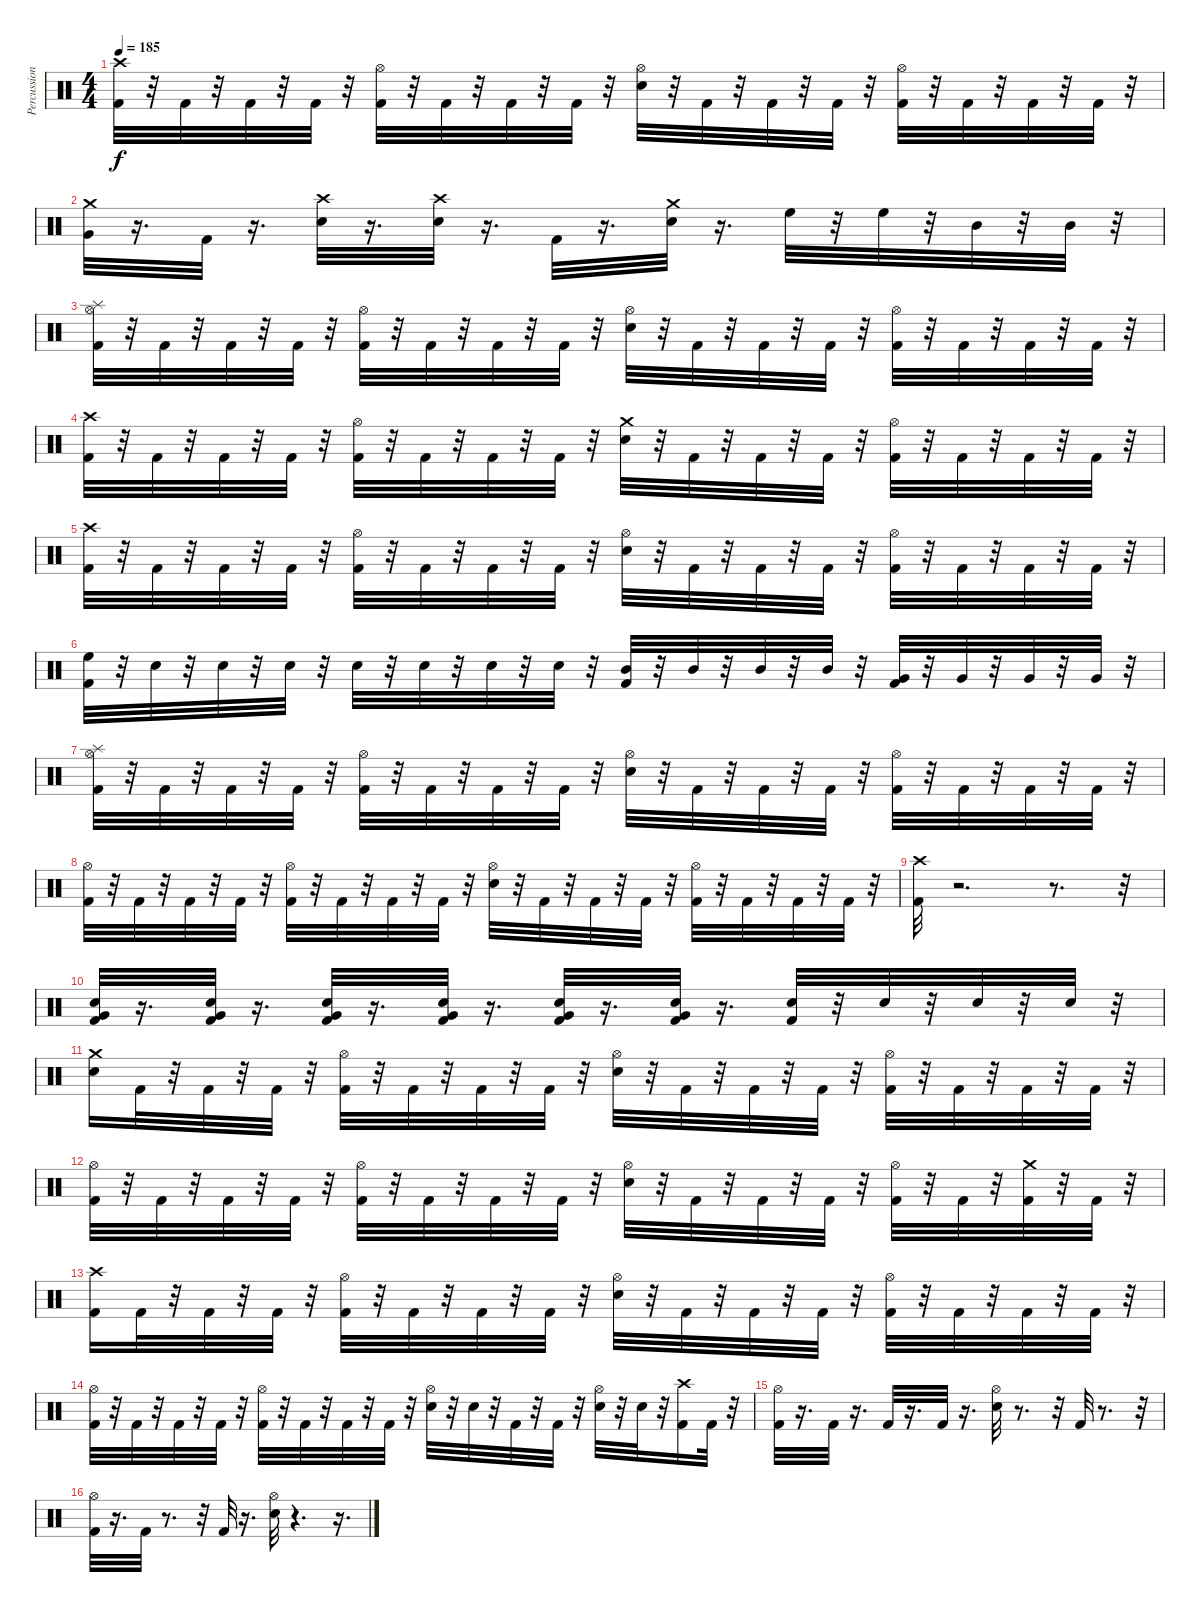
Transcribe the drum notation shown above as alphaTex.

\track ("Percussion" "Percussion") {instrument percussion}
\staff {score}
\articulation defaults
\ts (4 4)
\tempo 185
\clef neutral
\ks c
("Kick (hit) 2" "Crash high (hit)").32{dy f} r.32 "Kick (hit) 2".32 r.32 "Kick (hit) 2".32 r.32 "Kick (hit) 2".32 r.32 ("Kick (hit) 2" "Hi-Hat (open)").32 r.32 "Kick (hit) 2".32 r.32 "Kick (hit) 2".32 r.32 "Kick (hit) 2".32 r.32 ("Snare (hit) 2" "Hi-Hat (open)").32 r.32 "Kick (hit) 2".32 r.32 "Kick (hit) 2".32 r.32 "Kick (hit) 2".32 r.32 ("Kick (hit) 2" "Hi-Hat (open)").32 r.32 "Kick (hit) 2".32 r.32 "Kick (hit) 2".32 r.32 "Kick (hit) 2".32 r.32 |
("Very Low Tom (hit)" "Crash medium (hit)").32 r.16{d} "Kick (hit) 2".32 r.16{d} ("Snare (hit) 2" "Crash high (hit)").32 r.16{d} ("Snare (hit) 2" "Crash high (hit)").32 r.16{d} "Kick (hit) 2".32 r.16{d} ("Snare (hit) 2" "Crash medium (hit)").32 r.16{d} "High Floor Tom (hit)".32 r.32 "High Floor Tom (hit)".32 r.32 "Mid Tom (hit)".32 r.32 "Mid Tom (hit)".32 r.32 |
("Kick (hit) 2" "Hi-Hat (open)" "Splash (hit)").32 r.32 "Kick (hit) 2".32 r.32 "Kick (hit) 2".32 r.32 "Kick (hit) 2".32 r.32 ("Kick (hit) 2" "Hi-Hat (open)").32 r.32 "Kick (hit) 2".32 r.32 "Kick (hit) 2".32 r.32 "Kick (hit) 2".32 r.32 ("Snare (hit) 2" "Hi-Hat (open)").32 r.32 "Kick (hit) 2".32 r.32 "Kick (hit) 2".32 r.32 "Kick (hit) 2".32 r.32 ("Kick (hit) 2" "Hi-Hat (open)").32 r.32 "Kick (hit) 2".32 r.32 "Kick (hit) 2".32 r.32 "Kick (hit) 2".32 r.32 |
("Kick (hit) 2" "Crash high (hit)").32 r.32 "Kick (hit) 2".32 r.32 "Kick (hit) 2".32 r.32 "Kick (hit) 2".32 r.32 ("Kick (hit) 2" "Hi-Hat (open)").32 r.32 "Kick (hit) 2".32 r.32 "Kick (hit) 2".32 r.32 "Kick (hit) 2".32 r.32 ("Snare (hit) 2" "Crash medium (hit)").32 r.32 "Kick (hit) 2".32 r.32 "Kick (hit) 2".32 r.32 "Kick (hit) 2".32 r.32 ("Kick (hit) 2" "Hi-Hat (open)").32 r.32 "Kick (hit) 2".32 r.32 "Kick (hit) 2".32 r.32 "Kick (hit) 2".32 r.32 |
("Kick (hit) 2" "Crash high (hit)").32 r.32 "Kick (hit) 2".32 r.32 "Kick (hit) 2".32 r.32 "Kick (hit) 2".32 r.32 ("Kick (hit) 2" "Hi-Hat (open)").32 r.32 "Kick (hit) 2".32 r.32 "Kick (hit) 2".32 r.32 "Kick (hit) 2".32 r.32 ("Snare (hit) 2" "Hi-Hat (open)").32 r.32 "Kick (hit) 2".32 r.32 "Kick (hit) 2".32 r.32 "Kick (hit) 2".32 r.32 ("Kick (hit) 2" "Hi-Hat (open)").32 r.32 "Kick (hit) 2".32 r.32 "Kick (hit) 2".32 r.32 "Kick (hit) 2".32 r.32 |
("Kick (hit) 2" "High Floor Tom (hit)").32 r.32 "Snare (hit) 2".32 r.32 "Snare (hit) 2".32 r.32 "Snare (hit) 2".32 r.32 "Snare (hit) 2".32 r.32 "Snare (hit) 2".32 r.32 "Snare (hit) 2".32 r.32 "Snare (hit) 2".32 r.32 ("Kick (hit) 2" "Mid Tom (hit)").32 r.32 "Mid Tom (hit)".32 r.32 "Mid Tom (hit)".32 r.32 "Mid Tom (hit)".32 r.32 ("Kick (hit) 2" "Very Low Tom (hit)").32 r.32 "Very Low Tom (hit)".32 r.32 "Very Low Tom (hit)".32 r.32 "Very Low Tom (hit)".32 r.32 |
("Kick (hit) 2" "Hi-Hat (open)" "Splash (hit)").32 r.32 "Kick (hit) 2".32 r.32 "Kick (hit) 2".32 r.32 "Kick (hit) 2".32 r.32 ("Kick (hit) 2" "Hi-Hat (open)").32 r.32 "Kick (hit) 2".32 r.32 "Kick (hit) 2".32 r.32 "Kick (hit) 2".32 r.32 ("Snare (hit) 2" "Hi-Hat (open)").32 r.32 "Kick (hit) 2".32 r.32 "Kick (hit) 2".32 r.32 "Kick (hit) 2".32 r.32 ("Kick (hit) 2" "Hi-Hat (open)").32 r.32 "Kick (hit) 2".32 r.32 "Kick (hit) 2".32 r.32 "Kick (hit) 2".32 r.32 |
("Kick (hit) 2" "Hi-Hat (open)").32 r.32 "Kick (hit) 2".32 r.32 "Kick (hit) 2".32 r.32 "Kick (hit) 2".32 r.32 ("Kick (hit) 2" "Hi-Hat (open)").32 r.32 "Kick (hit) 2".32 r.32 "Kick (hit) 2".32 r.32 "Kick (hit) 2".32 r.32 ("Snare (hit) 2" "Hi-Hat (open)").32 r.32 "Kick (hit) 2".32 r.32 "Kick (hit) 2".32 r.32 "Kick (hit) 2".32 r.32 ("Kick (hit) 2" "Hi-Hat (open)").32 r.32 "Kick (hit) 2".32 r.32 "Kick (hit) 2".32 r.32 "Kick (hit) 2".32 r.32 |
("Kick (hit) 2" "Crash high (hit)").32 r.2{d} r.8{d} r.32 |
("Kick (hit) 2" "Snare (hit) 2" "Very Low Tom (hit)").32 r.16{d} ("Kick (hit) 2" "Snare (hit) 2" "Very Low Tom (hit)").32 r.16{d} ("Kick (hit) 2" "Snare (hit) 2" "Very Low Tom (hit)").32 r.16{d} ("Kick (hit) 2" "Snare (hit) 2" "Very Low Tom (hit)").32 r.16{d} ("Kick (hit) 2" "Snare (hit) 2" "Very Low Tom (hit)").32 r.16{d} ("Kick (hit) 2" "Snare (hit) 2" "Very Low Tom (hit)").32 r.16{d} ("Kick (hit) 2" "Snare (hit) 2").32 r.32 "Snare (hit) 2".32 r.32 "Snare (hit) 2".32 r.32 "Snare (hit) 2".32 r.32 |
("Snare (hit) 2" "Crash medium (hit)").16{volume 16} "Kick (hit) 2".32 r.32 "Kick (hit) 2".32 r.32 "Kick (hit) 2".32 r.32 ("Kick (hit) 2" "Hi-Hat (open)").32 r.32 "Kick (hit) 2".32 r.32 "Kick (hit) 2".32 r.32 "Kick (hit) 2".32 r.32 ("Snare (hit) 2" "Hi-Hat (open)").32 r.32 "Kick (hit) 2".32 r.32 "Kick (hit) 2".32 r.32 "Kick (hit) 2".32 r.32 ("Kick (hit) 2" "Hi-Hat (open)").32 r.32 "Kick (hit) 2".32 r.32 "Kick (hit) 2".32 r.32 "Kick (hit) 2".32 r.32 |
("Kick (hit) 2" "Hi-Hat (open)").32 r.32 "Kick (hit) 2".32 r.32 "Kick (hit) 2".32 r.32 "Kick (hit) 2".32 r.32 ("Kick (hit) 2" "Hi-Hat (open)").32 r.32 "Kick (hit) 2".32 r.32 "Kick (hit) 2".32 r.32 "Kick (hit) 2".32 r.32 ("Snare (hit) 2" "Hi-Hat (open)").32 r.32 "Kick (hit) 2".32 r.32 "Kick (hit) 2".32 r.32 "Kick (hit) 2".32 r.32 ("Kick (hit) 2" "Hi-Hat (open)").32 r.32 "Kick (hit) 2".32 r.32 ("Kick (hit) 2" "Crash medium (hit)").32 r.32 "Kick (hit) 2".32 r.32 |
("Kick (hit) 2" "Crash high (hit)").16 "Kick (hit) 2".32 r.32 "Kick (hit) 2".32 r.32 "Kick (hit) 2".32 r.32 ("Kick (hit) 2" "Hi-Hat (open)").32 r.32 "Kick (hit) 2".32 r.32 "Kick (hit) 2".32 r.32 "Kick (hit) 2".32 r.32 ("Snare (hit) 2" "Hi-Hat (open)").32 r.32 "Kick (hit) 2".32 r.32 "Kick (hit) 2".32 r.32 "Kick (hit) 2".32 r.32 ("Kick (hit) 2" "Hi-Hat (open)").32 r.32 "Kick (hit) 2".32 r.32 "Kick (hit) 2".32 r.32 "Kick (hit) 2".32 r.32 |
("Kick (hit) 2" "Hi-Hat (open)").32 r.32 "Kick (hit) 2".32 r.32 "Kick (hit) 2".32 r.32 "Kick (hit) 2".32 r.32 ("Kick (hit) 2" "Hi-Hat (open)").32 r.32 "Kick (hit) 2".32 r.32 "Kick (hit) 2".32 r.32 "Kick (hit) 2".32 r.32 ("Snare (hit) 2" "Hi-Hat (open)").32 r.32 "Snare (hit) 2".32 r.32 "Kick (hit) 2".32 r.32 "Kick (hit) 2".32 r.32 ("Snare (hit) 2" "Hi-Hat (open)").32 r.32 "Snare (hit) 2".32 r.32 ("Kick (hit) 2" "Crash high (hit)").16 "Kick (hit) 2".32 r.32 |
("Kick (hit) 2" "Hi-Hat (open)").32 r.16{d} "Kick (hit) 2".32 r.16{d} "Kick (hit) 2".32 r.16{d} "Kick (hit) 2".32 r.16{d} ("Snare (hit) 2" "Hi-Hat (open)").32 r.8{d} r.32 "Kick (hit) 2".32 r.8{d} r.32 |
("Kick (hit) 2" "Hi-Hat (open)").32 r.16{d} "Kick (hit) 2".32 r.8{d} r.32 "Kick (hit) 2".32 r.16{d} ("Snare (hit) 2" "Hi-Hat (open)").32 r.4{d} r.16{d}
